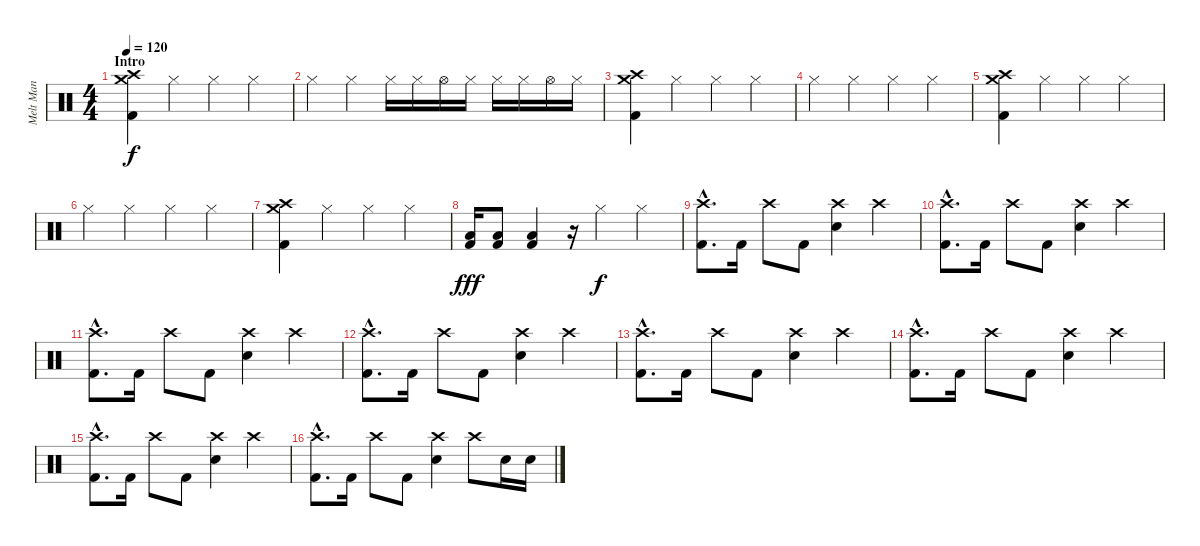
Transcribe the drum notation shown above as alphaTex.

\track ("Melt Man" "Melt Man") {instrument percussion}
\staff {score}
\articulation defaults
\ts (4 4)
\section ("" "Intro")
\tempo 120
\clef neutral
\ks c
("Crash medium (hit)" "Crash high (hit)" "Kick (hit) 2").4{dy f} "Hi-Hat (closed)".4 "Hi-Hat (closed)".4 "Hi-Hat (closed)".4 |
"Hi-Hat (closed)".4 "Hi-Hat (closed)".4 "Hi-Hat (closed)".16 "Hi-Hat (closed)".16 "Hi-Hat (open)".16 "Hi-Hat (closed)".16 "Hi-Hat (closed)".16 "Hi-Hat (closed)".16 "Hi-Hat (open)".16 "Hi-Hat (closed)".16 |
("Crash medium (hit)" "Crash high (hit)" "Kick (hit) 2").4 "Hi-Hat (closed)".4 "Hi-Hat (closed)".4 "Hi-Hat (closed)".4 |
"Hi-Hat (closed)".4 "Hi-Hat (closed)".4 "Hi-Hat (closed)".4 "Hi-Hat (closed)".4 |
("Crash medium (hit)" "Crash high (hit)" "Kick (hit) 2").4 "Hi-Hat (closed)".4 "Hi-Hat (closed)".4 "Hi-Hat (closed)".4 |
"Hi-Hat (closed)".4 "Hi-Hat (closed)".4 "Hi-Hat (closed)".4 "Hi-Hat (closed)".4 |
("Crash medium (hit)" "Crash high (hit)" "Kick (hit) 2").4 "Hi-Hat (closed)".4 "Hi-Hat (closed)".4 "Hi-Hat (closed)".4 |
("Low Tom (hit)" "Kick (hit) 2").16{dy fff} ("Low Tom (hit)" "Kick (hit) 2").8 ("Low Tom (hit)" "Kick (hit) 2").4 r.16 "Hi-Hat (closed)".4{dy f} "Hi-Hat (closed)".4 |
("Crash high (hit)"{hac} "Kick (hit) 2"{hac}).8{d} "Kick (hit) 2".16 "Crash high (hit)".8 "Kick (hit) 2".8 ("Crash high (hit)" "Snare (hit) 2").4 "Crash high (hit)".4 |
("Crash high (hit)"{hac} "Kick (hit) 2"{hac}).8{d} "Kick (hit) 2".16 "Crash high (hit)".8 "Kick (hit) 2".8 ("Crash high (hit)" "Snare (hit) 2").4 "Crash high (hit)".4 |
("Crash high (hit)"{hac} "Kick (hit) 2"{hac}).8{d} "Kick (hit) 2".16 "Crash high (hit)".8 "Kick (hit) 2".8 ("Crash high (hit)" "Snare (hit) 2").4 "Crash high (hit)".4 |
("Crash high (hit)"{hac} "Kick (hit) 2"{hac}).8{d} "Kick (hit) 2".16 "Crash high (hit)".8 "Kick (hit) 2".8 ("Crash high (hit)" "Snare (hit) 2").4 "Crash high (hit)".4 |
("Crash high (hit)"{hac} "Kick (hit) 2"{hac}).8{d} "Kick (hit) 2".16 "Crash high (hit)".8 "Kick (hit) 2".8 ("Crash high (hit)" "Snare (hit) 2").4 "Crash high (hit)".4 |
("Crash high (hit)"{hac} "Kick (hit) 2"{hac}).8{d} "Kick (hit) 2".16 "Crash high (hit)".8 "Kick (hit) 2".8 ("Crash high (hit)" "Snare (hit) 2").4 "Crash high (hit)".4 |
("Crash high (hit)"{hac} "Kick (hit) 2"{hac}).8{d} "Kick (hit) 2".16 "Crash high (hit)".8 "Kick (hit) 2".8 ("Crash high (hit)" "Snare (hit) 2").4 "Crash high (hit)".4 |
("Crash high (hit)"{hac} "Kick (hit) 2"{hac}).8{d} "Kick (hit) 2".16 "Crash high (hit)".8 "Kick (hit) 2".8 ("Crash high (hit)" "Snare (hit) 2").4 "Crash high (hit)".8 "Snare (hit) 2".16 "Snare (hit) 2".16
